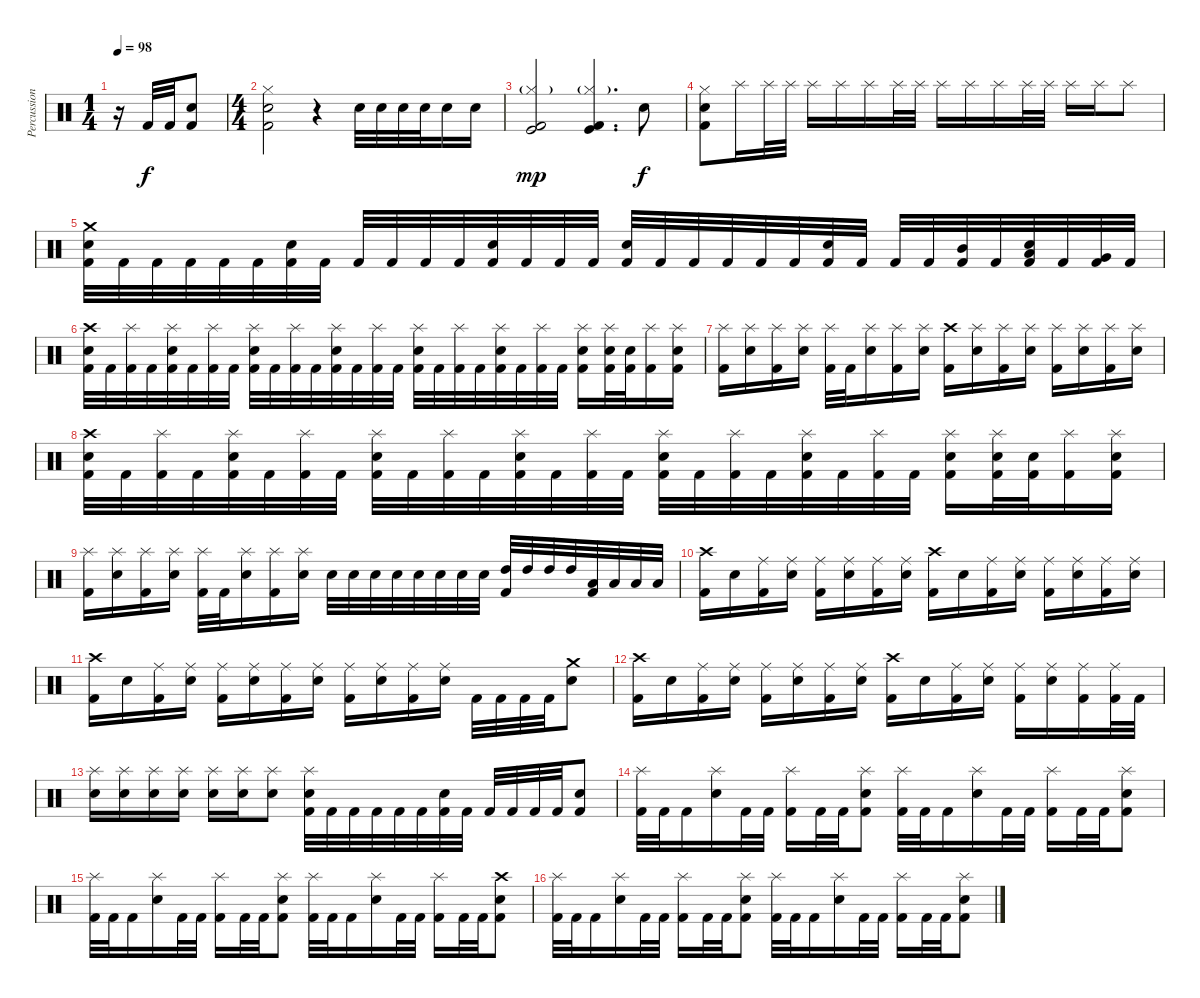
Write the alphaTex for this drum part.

\track ("Percussion" "Percussion") {instrument percussion}
\staff {score}
\articulation defaults
\ts (1 4)
\tempo 98
\clef neutral
\ks c
r.16{dy f} "Kick (hit) 2".32 "Kick (hit) 2".32 ("Snare (hit) 2" "Kick (hit) 2").8 |
\ts (4 4)
("Hi-Hat (closed)" "Snare (hit) 2" "Kick (hit) 2").2 r.4 "Snare (hit) 2".32 "Snare (hit) 2".32 "Snare (hit) 2".32 "Snare (hit) 2".32 "Snare (hit) 2".16 "Snare (hit) 2".16 |
("Hi-Hat (closed)"{g} "Kick (hit) 2" "Kick (hit)").2{dy mp} ("Hi-Hat (closed)"{g} "Kick (hit) 2" "Kick (hit)").4{d} "Snare (hit) 2".8{dy f} |
("Hi-Hat (closed)" "Snare (hit) 2" "Kick (hit) 2").8 "Splash (hit)".16 "Splash (hit)".32 "Splash (hit)".32 "Splash (hit)".16 "Splash (hit)".16 "Splash (hit)".16 "Splash (hit)".32 "Splash (hit)".32 "Splash (hit)".16 "Splash (hit)".16 "Splash (hit)".16 "Splash (hit)".32 "Splash (hit)".32 "Splash (hit)".16 "Splash (hit)".16 "Splash (hit)".8 |
("Crash medium (hit)" "Snare (hit) 2" "Kick (hit) 2").32 "Kick (hit) 2".32 "Kick (hit) 2".32 "Kick (hit) 2".32 "Kick (hit) 2".32 "Kick (hit) 2".32 ("Snare (hit) 2" "Kick (hit) 2").32 "Kick (hit) 2".32 "Kick (hit) 2".32 "Kick (hit) 2".32 "Kick (hit) 2".32 "Kick (hit) 2".32 ("Snare (hit) 2" "Kick (hit) 2").32 "Kick (hit) 2".32 "Kick (hit) 2".32 "Kick (hit) 2".32 ("Snare (hit) 2" "Kick (hit) 2").32 "Kick (hit) 2".32 "Kick (hit) 2".32 "Kick (hit) 2".32 "Kick (hit) 2".32 "Kick (hit) 2".32 ("Snare (hit) 2" "Kick (hit) 2").32 "Kick (hit) 2".32 "Kick (hit) 2".32 "Kick (hit) 2".32 ("Kick (hit) 2" "Mid Tom (hit)").32 "Kick (hit) 2".32 ("Snare (hit) 2" "Kick (hit) 2" "Low Tom (hit)").32 "Kick (hit) 2".32 ("Kick (hit) 2" "Very Low Tom (hit)").32 "Kick (hit) 2".32 |
("Crash high (hit)" "Snare (hit) 2" "Kick (hit) 2").32 "Kick (hit) 2".32 ("Splash (hit)" "Kick (hit) 2").32 "Kick (hit) 2".32 ("Splash (hit)" "Snare (hit) 2" "Kick (hit) 2").32 "Kick (hit) 2".32 ("Splash (hit)" "Kick (hit) 2").32 "Kick (hit) 2".32 ("Splash (hit)" "Snare (hit) 2" "Kick (hit) 2").32 "Kick (hit) 2".32 ("Splash (hit)" "Kick (hit) 2").32 "Kick (hit) 2".32 ("Splash (hit)" "Snare (hit) 2" "Kick (hit) 2").32 "Kick (hit) 2".32 ("Splash (hit)" "Kick (hit) 2").32 "Kick (hit) 2".32 ("Splash (hit)" "Snare (hit) 2" "Kick (hit) 2").32 "Kick (hit) 2".32 ("Splash (hit)" "Kick (hit) 2").32 "Kick (hit) 2".32 ("Splash (hit)" "Snare (hit) 2" "Kick (hit) 2").32 "Kick (hit) 2".32 ("Splash (hit)" "Kick (hit) 2").32 "Kick (hit) 2".32 ("Splash (hit)" "Snare (hit) 2" "Kick (hit) 2").16 ("Splash (hit)" "Snare (hit) 2" "Kick (hit) 2").32 ("Snare (hit) 2" "Kick (hit) 2").32 ("Splash (hit)" "Kick (hit) 2").16 ("Splash (hit)" "Snare (hit) 2" "Kick (hit) 2").16 |
("Splash (hit)" "Kick (hit) 2").16 ("Splash (hit)" "Snare (hit) 2").16 ("Splash (hit)" "Kick (hit) 2").16 ("Splash (hit)" "Snare (hit) 2").16 ("Splash (hit)" "Kick (hit) 2").32 "Kick (hit) 2".32 ("Splash (hit)" "Snare (hit) 2").16 ("Splash (hit)" "Kick (hit) 2").16 ("Splash (hit)" "Snare (hit) 2").16 ("Crash high (hit)" "Kick (hit) 2").16 ("Splash (hit)" "Snare (hit) 2").16 ("Splash (hit)" "Kick (hit) 2").16 ("Splash (hit)" "Snare (hit) 2").16 ("Splash (hit)" "Kick (hit) 2").16 ("Splash (hit)" "Snare (hit) 2").16 ("Splash (hit)" "Kick (hit) 2").16 ("Splash (hit)" "Snare (hit) 2").16 |
("Crash high (hit)" "Snare (hit) 2" "Kick (hit) 2").32 "Kick (hit) 2".32 ("Splash (hit)" "Kick (hit) 2").32 "Kick (hit) 2".32 ("Splash (hit)" "Snare (hit) 2" "Kick (hit) 2").32 "Kick (hit) 2".32 ("Splash (hit)" "Kick (hit) 2").32 "Kick (hit) 2".32 ("Splash (hit)" "Snare (hit) 2" "Kick (hit) 2").32 "Kick (hit) 2".32 ("Splash (hit)" "Kick (hit) 2").32 "Kick (hit) 2".32 ("Splash (hit)" "Snare (hit) 2" "Kick (hit) 2").32 "Kick (hit) 2".32 ("Splash (hit)" "Kick (hit) 2").32 "Kick (hit) 2".32 ("Splash (hit)" "Snare (hit) 2" "Kick (hit) 2").32 "Kick (hit) 2".32 ("Splash (hit)" "Kick (hit) 2").32 "Kick (hit) 2".32 ("Splash (hit)" "Snare (hit) 2" "Kick (hit) 2").32 "Kick (hit) 2".32 ("Splash (hit)" "Kick (hit) 2").32 "Kick (hit) 2".32 ("Splash (hit)" "Snare (hit) 2" "Kick (hit) 2").16 ("Splash (hit)" "Snare (hit) 2" "Kick (hit) 2").32 ("Snare (hit) 2" "Kick (hit) 2").32 ("Splash (hit)" "Kick (hit) 2").16 ("Splash (hit)" "Snare (hit) 2" "Kick (hit) 2").16 |
("Splash (hit)" "Kick (hit) 2").16 ("Splash (hit)" "Snare (hit) 2").16 ("Splash (hit)" "Kick (hit) 2").16 ("Splash (hit)" "Snare (hit) 2").16 ("Splash (hit)" "Kick (hit) 2").32 "Kick (hit) 2".32 ("Splash (hit)" "Snare (hit) 2").16 ("Splash (hit)" "Kick (hit) 2").16 ("Splash (hit)" "Snare (hit) 2").16 "Snare (hit) 2".32 "Snare (hit) 2".32 "Snare (hit) 2".32 "Snare (hit) 2".32 "Snare (hit) 2".32 "Snare (hit) 2".32 "Snare (hit) 2".32 "Snare (hit) 2".32 ("High Tom (hit)" "Kick (hit) 2").32 "High Tom (hit)".32 "High Tom (hit)".32 "High Tom (hit)".32 ("Low Tom (hit)" "Kick (hit) 2").32 "Low Tom (hit)".32 "Low Tom (hit)".32 "Low Tom (hit)".32 |
("Kick (hit) 2" "Crash high (hit)").16 "Snare (hit) 2".16 ("Kick (hit) 2" "Ride (middle)").16 ("Snare (hit) 2" "Ride (middle)").16 ("Kick (hit) 2" "Ride (middle)").16 ("Snare (hit) 2" "Ride (middle)").16 ("Kick (hit) 2" "Ride (middle)").16 ("Snare (hit) 2" "Ride (middle)").16 ("Kick (hit) 2" "Crash high (hit)").16 "Snare (hit) 2".16 ("Kick (hit) 2" "Ride (middle)").16 ("Snare (hit) 2" "Ride (middle)").16 ("Kick (hit) 2" "Ride (middle)").16 ("Snare (hit) 2" "Ride (middle)").16 ("Kick (hit) 2" "Ride (middle)").16 ("Snare (hit) 2" "Ride (middle)").16 |
("Kick (hit) 2" "Crash high (hit)").16 "Snare (hit) 2".16 ("Kick (hit) 2" "Ride (middle)").16 ("Snare (hit) 2" "Ride (middle)").16 ("Kick (hit) 2" "Ride (middle)").16 ("Snare (hit) 2" "Ride (middle)").16 ("Kick (hit) 2" "Ride (middle)").16 ("Snare (hit) 2" "Ride (middle)").16 ("Kick (hit) 2" "Ride (middle)").16 ("Snare (hit) 2" "Ride (middle)").16 ("Kick (hit) 2" "Ride (middle)").16 ("Snare (hit) 2" "Ride (middle)").16 "Kick (hit) 2".32 "Kick (hit) 2".32 "Kick (hit) 2".32 "Kick (hit) 2".32 ("Snare (hit) 2" "Crash medium (hit)").8 |
("Kick (hit) 2" "Crash high (hit)").16 "Snare (hit) 2".16 ("Kick (hit) 2" "Ride (middle)").16 ("Snare (hit) 2" "Ride (middle)").16 ("Kick (hit) 2" "Ride (middle)").16 ("Snare (hit) 2" "Ride (middle)").16 ("Kick (hit) 2" "Ride (middle)").16 ("Snare (hit) 2" "Ride (middle)").16 ("Kick (hit) 2" "Crash high (hit)").16 "Snare (hit) 2".16 ("Kick (hit) 2" "Ride (middle)").16 ("Snare (hit) 2" "Ride (middle)").16 ("Kick (hit) 2" "Ride (middle)").16 ("Snare (hit) 2" "Ride (middle)").16 ("Kick (hit) 2" "Ride (middle)").16 ("Kick (hit) 2" "Ride (middle)").32 "Kick (hit) 2".32 |
("Splash (hit)" "Snare (hit) 2").16 ("Splash (hit)" "Snare (hit) 2").16 ("Splash (hit)" "Snare (hit) 2").16 ("Splash (hit)" "Snare (hit) 2").16 ("Splash (hit)" "Snare (hit) 2").16 ("Splash (hit)" "Snare (hit) 2").16 ("Splash (hit)" "Snare (hit) 2").8 ("Splash (hit)" "Kick (hit) 2" "Snare (hit) 2").32 "Kick (hit) 2".32 "Kick (hit) 2".32 "Kick (hit) 2".32 "Kick (hit) 2".32 "Kick (hit) 2".32 ("Kick (hit) 2" "Snare (hit) 2").32 "Kick (hit) 2".32 "Kick (hit) 2".32 "Kick (hit) 2".32 "Kick (hit) 2".32 "Kick (hit) 2".32 ("Kick (hit) 2" "Snare (hit) 2").8 |
("Splash (hit)" "Kick (hit) 2").32 "Kick (hit) 2".32 "Kick (hit) 2".16 ("Splash (hit)" "Snare (hit) 2").16 "Kick (hit) 2".32 "Kick (hit) 2".32 ("Splash (hit)" "Kick (hit) 2").16 "Kick (hit) 2".32 "Kick (hit) 2".32 ("Splash (hit)" "Snare (hit) 2" "Kick (hit) 2").8 ("Splash (hit)" "Kick (hit) 2").32 "Kick (hit) 2".32 "Kick (hit) 2".16 ("Splash (hit)" "Snare (hit) 2").16 "Kick (hit) 2".32 "Kick (hit) 2".32 ("Splash (hit)" "Kick (hit) 2").16 "Kick (hit) 2".32 "Kick (hit) 2".32 ("Splash (hit)" "Snare (hit) 2" "Kick (hit) 2").8 |
("Splash (hit)" "Kick (hit) 2").32 "Kick (hit) 2".32 "Kick (hit) 2".16 ("Splash (hit)" "Snare (hit) 2").16 "Kick (hit) 2".32 "Kick (hit) 2".32 ("Splash (hit)" "Kick (hit) 2").16 "Kick (hit) 2".32 "Kick (hit) 2".32 ("Splash (hit)" "Snare (hit) 2" "Kick (hit) 2").8 ("Splash (hit)" "Kick (hit) 2").32 "Kick (hit) 2".32 "Kick (hit) 2".16 ("Splash (hit)" "Snare (hit) 2").16 "Kick (hit) 2".32 "Kick (hit) 2".32 ("Splash (hit)" "Kick (hit) 2").16 "Kick (hit) 2".32 "Kick (hit) 2".32 ("Crash high (hit)" "Snare (hit) 2" "Kick (hit) 2").8 |
("Splash (hit)" "Kick (hit) 2").32 "Kick (hit) 2".32 "Kick (hit) 2".16 ("Splash (hit)" "Snare (hit) 2").16 "Kick (hit) 2".32 "Kick (hit) 2".32 ("Splash (hit)" "Kick (hit) 2").16 "Kick (hit) 2".32 "Kick (hit) 2".32 ("Splash (hit)" "Snare (hit) 2" "Kick (hit) 2").8 ("Splash (hit)" "Kick (hit) 2").32 "Kick (hit) 2".32 "Kick (hit) 2".16 ("Splash (hit)" "Snare (hit) 2").16 "Kick (hit) 2".32 "Kick (hit) 2".32 ("Splash (hit)" "Kick (hit) 2").16 "Kick (hit) 2".32 "Kick (hit) 2".32 ("Splash (hit)" "Snare (hit) 2" "Kick (hit) 2").8
